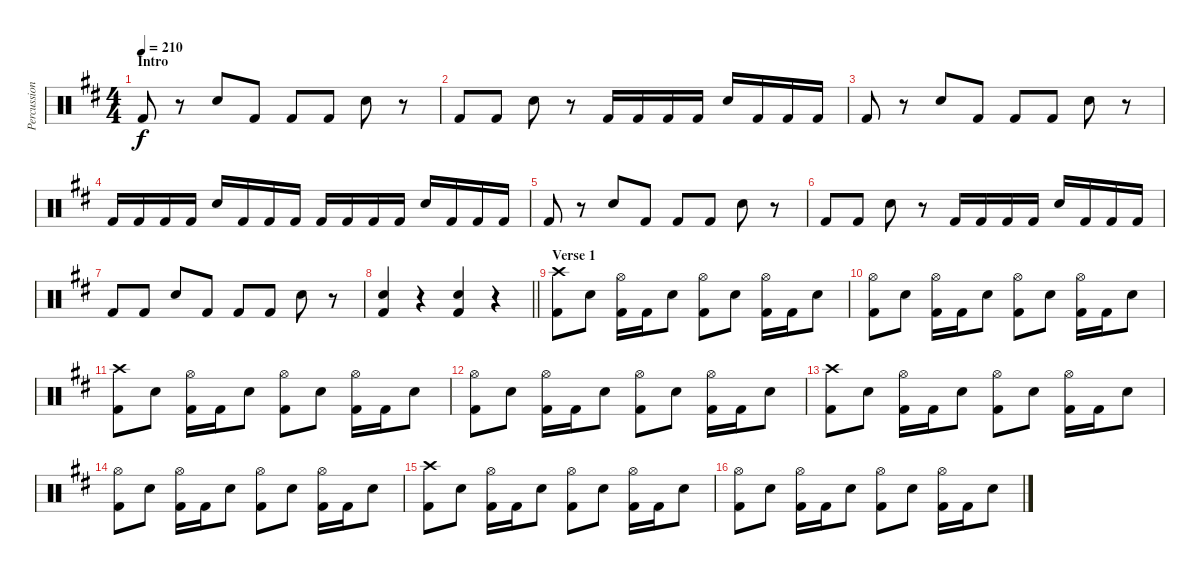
\track ("Percussion" "Percussion") {instrument percussion}
\staff {score}
\articulation defaults
\ts (4 4)
\section ("" "Intro")
\tempo 210
\clef neutral
\ks d "Kick (hit) 2".8{dy f}
r.8 "Electric Snare (hit)".8 "Kick (hit) 2".8 "Kick (hit) 2".8 "Kick (hit) 2".8 "Electric Snare (hit)".8 r.8 |
"Kick (hit) 2".8 "Kick (hit) 2".8 "Electric Snare (hit)".8 r.8 "Kick (hit) 2".16 "Kick (hit) 2".16 "Kick (hit) 2".16 "Kick (hit) 2".16 "Electric Snare (hit)".16 "Kick (hit) 2".16 "Kick (hit) 2".16 "Kick (hit) 2".16 |
"Kick (hit) 2".8 r.8 "Electric Snare (hit)".8 "Kick (hit) 2".8 "Kick (hit) 2".8 "Kick (hit) 2".8 "Electric Snare (hit)".8 r.8 |
"Kick (hit) 2".16 "Kick (hit) 2".16 "Kick (hit) 2".16 "Kick (hit) 2".16 "Electric Snare (hit)".16 "Kick (hit) 2".16 "Kick (hit) 2".16 "Kick (hit) 2".16 "Kick (hit) 2".16 "Kick (hit) 2".16 "Kick (hit) 2".16 "Kick (hit) 2".16 "Electric Snare (hit)".16 "Kick (hit) 2".16 "Kick (hit) 2".16 "Kick (hit) 2".16 |
"Kick (hit) 2".8 r.8 "Electric Snare (hit)".8 "Kick (hit) 2".8 "Kick (hit) 2".8 "Kick (hit) 2".8 "Electric Snare (hit)".8 r.8 |
"Kick (hit) 2".8 "Kick (hit) 2".8 "Electric Snare (hit)".8 r.8 "Kick (hit) 2".16 "Kick (hit) 2".16 "Kick (hit) 2".16 "Kick (hit) 2".16 "Electric Snare (hit)".16 "Kick (hit) 2".16 "Kick (hit) 2".16 "Kick (hit) 2".16 |
"Kick (hit) 2".8 "Kick (hit) 2".8 "Electric Snare (hit)".8 "Kick (hit) 2".8 "Kick (hit) 2".8 "Kick (hit) 2".8 "Electric Snare (hit)".8 r.8 |
\barLineRight lightlight
("Electric Snare (hit)" "Kick (hit) 2").4 r.4 ("Electric Snare (hit)" "Kick (hit) 2").4 r.4 |
\section ("" "Verse 1")
("Crash high (hit)" "Kick (hit) 2").8 "Electric Snare (hit)".8 ("Hi-Hat (open)" "Kick (hit) 2").16 "Kick (hit) 2".16 "Electric Snare (hit)".8 ("Hi-Hat (open)" "Kick (hit) 2").8 "Electric Snare (hit)".8 ("Hi-Hat (open)" "Kick (hit) 2").16 "Kick (hit) 2".16 "Electric Snare (hit)".8 |
("Hi-Hat (open)" "Kick (hit) 2").8 "Electric Snare (hit)".8 ("Hi-Hat (open)" "Kick (hit) 2").16 "Kick (hit) 2".16 "Electric Snare (hit)".8 ("Hi-Hat (open)" "Kick (hit) 2").8 "Electric Snare (hit)".8 ("Hi-Hat (open)" "Kick (hit) 2").16 "Kick (hit) 2".16 "Electric Snare (hit)".8 |
("Crash high (hit)" "Kick (hit) 2").8 "Electric Snare (hit)".8 ("Hi-Hat (open)" "Kick (hit) 2").16 "Kick (hit) 2".16 "Electric Snare (hit)".8 ("Hi-Hat (open)" "Kick (hit) 2").8 "Electric Snare (hit)".8 ("Hi-Hat (open)" "Kick (hit) 2").16 "Kick (hit) 2".16 "Electric Snare (hit)".8 |
("Hi-Hat (open)" "Kick (hit) 2").8 "Electric Snare (hit)".8 ("Hi-Hat (open)" "Kick (hit) 2").16 "Kick (hit) 2".16 "Electric Snare (hit)".8 ("Hi-Hat (open)" "Kick (hit) 2").8 "Electric Snare (hit)".8 ("Hi-Hat (open)" "Kick (hit) 2").16 "Kick (hit) 2".16 "Electric Snare (hit)".8 |
("Crash high (hit)" "Kick (hit) 2").8 "Electric Snare (hit)".8 ("Hi-Hat (open)" "Kick (hit) 2").16 "Kick (hit) 2".16 "Electric Snare (hit)".8 ("Hi-Hat (open)" "Kick (hit) 2").8 "Electric Snare (hit)".8 ("Hi-Hat (open)" "Kick (hit) 2").16 "Kick (hit) 2".16 "Electric Snare (hit)".8 |
("Hi-Hat (open)" "Kick (hit) 2").8 "Electric Snare (hit)".8 ("Hi-Hat (open)" "Kick (hit) 2").16 "Kick (hit) 2".16 "Electric Snare (hit)".8 ("Hi-Hat (open)" "Kick (hit) 2").8 "Electric Snare (hit)".8 ("Hi-Hat (open)" "Kick (hit) 2").16 "Kick (hit) 2".16 "Electric Snare (hit)".8 |
("Crash high (hit)" "Kick (hit) 2").8 "Electric Snare (hit)".8 ("Hi-Hat (open)" "Kick (hit) 2").16 "Kick (hit) 2".16 "Electric Snare (hit)".8 ("Hi-Hat (open)" "Kick (hit) 2").8 "Electric Snare (hit)".8 ("Hi-Hat (open)" "Kick (hit) 2").16 "Kick (hit) 2".16 "Electric Snare (hit)".8 |
("Hi-Hat (open)" "Kick (hit) 2").8 "Electric Snare (hit)".8 ("Hi-Hat (open)" "Kick (hit) 2").16 "Kick (hit) 2".16 "Electric Snare (hit)".8 ("Hi-Hat (open)" "Kick (hit) 2").8 "Electric Snare (hit)".8 ("Hi-Hat (open)" "Kick (hit) 2").16 "Kick (hit) 2".16 "Electric Snare (hit)".8
